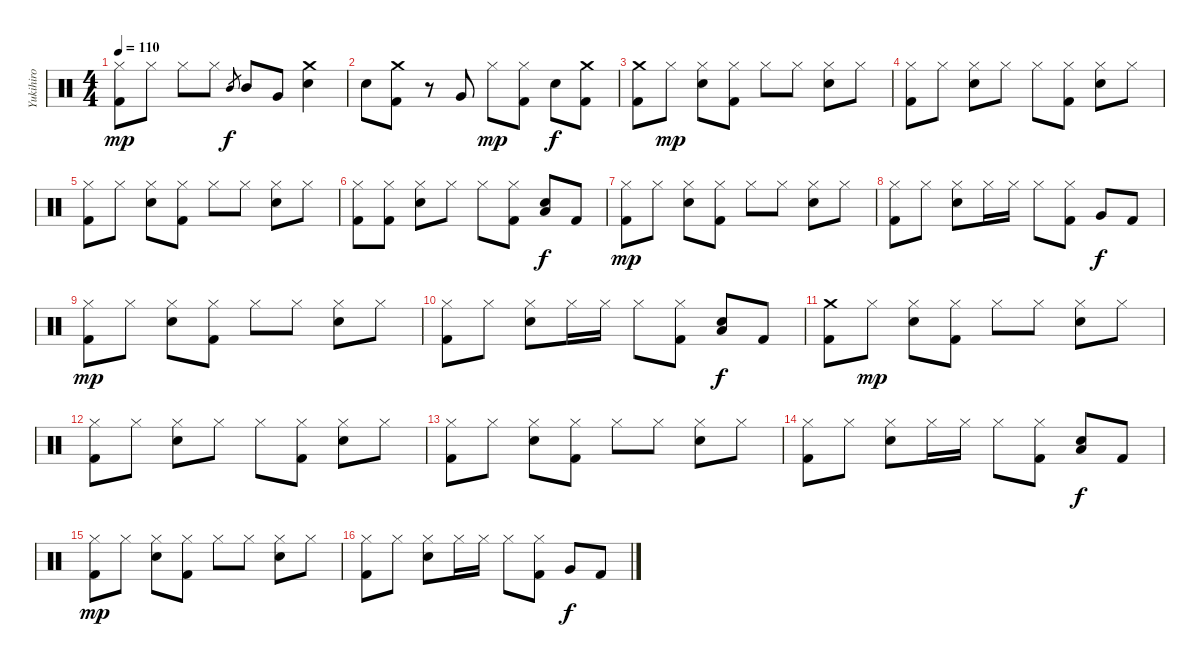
\track ("Yukihiro " "Yukihiro ") {instrument percussion}
\staff {score}
\articulation defaults
\ts (4 4)
\tempo 110
\clef neutral
\ks c
("Hi-Hat (closed)" "Kick (hit) 2").8{dy mp} "Hi-Hat (closed)".8 "Hi-Hat (closed)".8 "Hi-Hat (closed)".8 "Mid Tom (hit)".8{gr dy f} "Mid Tom (hit)".8 "Very Low Tom (hit)".8 ("Crash medium (hit)" "Electric Snare (hit)").4 |
"Electric Snare (hit)".8 ("Crash medium (hit)" "Kick (hit) 2").8 r.8 "Very Low Tom (hit)".8 "Hi-Hat (closed)".8{dy mp} ("Hi-Hat (closed)" "Kick (hit) 2").8 "Electric Snare (hit)".8{dy f} ("Crash medium (hit)" "Kick (hit) 2").8 |
("Crash medium (hit)" "Kick (hit) 2").8 "Hi-Hat (closed)".8{dy mp} ("Hi-Hat (closed)" "Electric Snare (hit)").8 ("Hi-Hat (closed)" "Kick (hit) 2").8 "Hi-Hat (closed)".8 "Hi-Hat (closed)".8 ("Hi-Hat (closed)" "Electric Snare (hit)").8 "Hi-Hat (closed)".8 |
("Hi-Hat (closed)" "Kick (hit) 2").8 "Hi-Hat (closed)".8 ("Hi-Hat (closed)" "Electric Snare (hit)").8 "Hi-Hat (closed)".8 "Hi-Hat (closed)".8 ("Hi-Hat (closed)" "Kick (hit) 2").8 ("Hi-Hat (closed)" "Electric Snare (hit)").8 "Hi-Hat (closed)".8 |
("Hi-Hat (closed)" "Kick (hit) 2").8 "Hi-Hat (closed)".8 ("Hi-Hat (closed)" "Electric Snare (hit)").8 ("Hi-Hat (closed)" "Kick (hit) 2").8 "Hi-Hat (closed)".8 "Hi-Hat (closed)".8 ("Hi-Hat (closed)" "Electric Snare (hit)").8 "Hi-Hat (closed)".8 |
("Hi-Hat (closed)" "Kick (hit) 2").8 ("Hi-Hat (closed)" "Kick (hit) 2").8 ("Hi-Hat (closed)" "Electric Snare (hit)").8 "Hi-Hat (closed)".8 "Hi-Hat (closed)".8 ("Hi-Hat (closed)" "Kick (hit) 2").8 ("Electric Snare (hit)" "Low Floor Tom (hit)").8{dy f} "Kick (hit) 2".8 |
("Hi-Hat (closed)" "Kick (hit) 2").8{dy mp} "Hi-Hat (closed)".8 ("Hi-Hat (closed)" "Electric Snare (hit)").8 ("Hi-Hat (closed)" "Kick (hit) 2").8 "Hi-Hat (closed)".8 "Hi-Hat (closed)".8 ("Hi-Hat (closed)" "Electric Snare (hit)").8 "Hi-Hat (closed)".8 |
("Hi-Hat (closed)" "Kick (hit) 2").8 "Hi-Hat (closed)".8 ("Hi-Hat (closed)" "Electric Snare (hit)").8 "Hi-Hat (closed)".16 "Hi-Hat (closed)".16 "Hi-Hat (closed)".8 ("Hi-Hat (closed)" "Kick (hit) 2").8 "Very Low Tom (hit)".8{dy f} "Kick (hit) 2".8 |
("Hi-Hat (closed)" "Kick (hit) 2").8{dy mp} "Hi-Hat (closed)".8 ("Hi-Hat (closed)" "Electric Snare (hit)").8 ("Hi-Hat (closed)" "Kick (hit) 2").8 "Hi-Hat (closed)".8 "Hi-Hat (closed)".8 ("Hi-Hat (closed)" "Electric Snare (hit)").8 "Hi-Hat (closed)".8 |
("Hi-Hat (closed)" "Kick (hit) 2").8 "Hi-Hat (closed)".8 ("Hi-Hat (closed)" "Electric Snare (hit)").8 "Hi-Hat (closed)".16 "Hi-Hat (closed)".16 "Hi-Hat (closed)".8 ("Hi-Hat (closed)" "Kick (hit) 2").8 ("Electric Snare (hit)" "Low Floor Tom (hit)").8{dy f} "Kick (hit) 2".8 |
("Crash medium (hit)" "Kick (hit) 2").8 "Hi-Hat (closed)".8{dy mp} ("Hi-Hat (closed)" "Electric Snare (hit)").8 ("Hi-Hat (closed)" "Kick (hit) 2").8 "Hi-Hat (closed)".8 "Hi-Hat (closed)".8 ("Hi-Hat (closed)" "Electric Snare (hit)").8 "Hi-Hat (closed)".8 |
("Hi-Hat (closed)" "Kick (hit) 2").8 "Hi-Hat (closed)".8 ("Hi-Hat (closed)" "Electric Snare (hit)").8 "Hi-Hat (closed)".8 "Hi-Hat (closed)".8 ("Hi-Hat (closed)" "Kick (hit) 2").8 ("Hi-Hat (closed)" "Electric Snare (hit)").8 "Hi-Hat (closed)".8 |
("Hi-Hat (closed)" "Kick (hit) 2").8 "Hi-Hat (closed)".8 ("Hi-Hat (closed)" "Electric Snare (hit)").8 ("Hi-Hat (closed)" "Kick (hit) 2").8 "Hi-Hat (closed)".8 "Hi-Hat (closed)".8 ("Hi-Hat (closed)" "Electric Snare (hit)").8 "Hi-Hat (closed)".8 |
("Hi-Hat (closed)" "Kick (hit) 2").8 "Hi-Hat (closed)".8 ("Hi-Hat (closed)" "Electric Snare (hit)").8 "Hi-Hat (closed)".16 "Hi-Hat (closed)".16 "Hi-Hat (closed)".8 ("Hi-Hat (closed)" "Kick (hit) 2").8 ("Electric Snare (hit)" "Low Floor Tom (hit)").8{dy f} "Kick (hit) 2".8 |
("Hi-Hat (closed)" "Kick (hit) 2").8{dy mp} "Hi-Hat (closed)".8 ("Hi-Hat (closed)" "Electric Snare (hit)").8 ("Hi-Hat (closed)" "Kick (hit) 2").8 "Hi-Hat (closed)".8 "Hi-Hat (closed)".8 ("Hi-Hat (closed)" "Electric Snare (hit)").8 "Hi-Hat (closed)".8 |
("Hi-Hat (closed)" "Kick (hit) 2").8 "Hi-Hat (closed)".8 ("Hi-Hat (closed)" "Electric Snare (hit)").8 "Hi-Hat (closed)".16 "Hi-Hat (closed)".16 "Hi-Hat (closed)".8 ("Hi-Hat (closed)" "Kick (hit) 2").8 "Very Low Tom (hit)".8{dy f} "Kick (hit) 2".8
